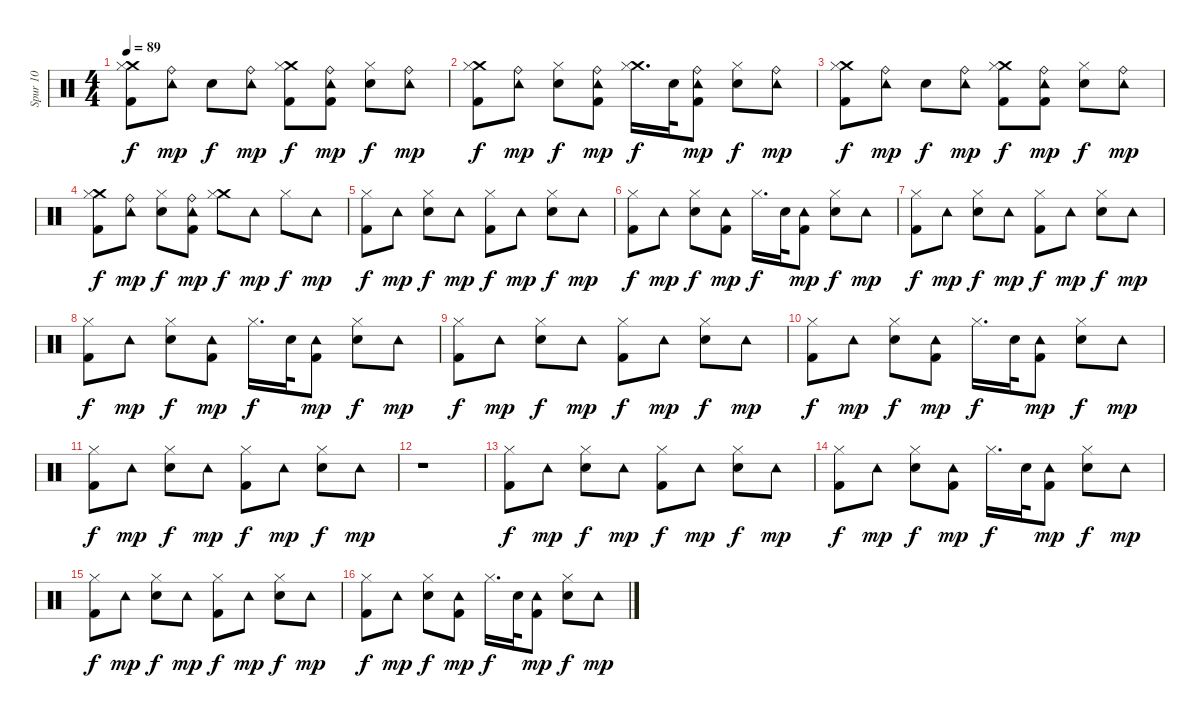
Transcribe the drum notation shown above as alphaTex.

\track ("Spur 10" "Spur 10") {instrument percussion}
\staff {score}
\articulation defaults
\ts (4 4)
\tempo 89
\clef neutral
\ks c
("Crash medium (hit)" "Kick (hit) 2" "Hi-Hat (closed)").8{dy f} ("Ride (bell)" "Tambourine (hit)").8{dy mp} "Electric Snare (hit)".8{dy f} ("Ride (bell)" "Tambourine (hit)").8{dy mp} ("Crash medium (hit)" "Kick (hit) 2" "Hi-Hat (closed)").8{dy f} ("Kick (hit) 2" "Ride (bell)" "Tambourine (hit)").8{dy mp} ("Electric Snare (hit)" "Hi-Hat (closed)").8{dy f} ("Ride (bell)" "Tambourine (hit)").8{dy mp} |
("Crash medium (hit)" "Kick (hit) 2" "Hi-Hat (closed)").8{dy f} ("Ride (bell)" "Tambourine (hit)").8{dy mp} ("Electric Snare (hit)" "Hi-Hat (closed)").8{dy f} ("Ride (bell)" "Kick (hit) 2" "Tambourine (hit)").8{dy mp} ("Crash medium (hit)" "Hi-Hat (closed)").16{d dy f} "Electric Snare (hit)".32 ("Ride (bell)" "Kick (hit) 2" "Tambourine (hit)").8{dy mp} ("Electric Snare (hit)" "Hi-Hat (closed)").8{dy f} ("Ride (bell)" "Tambourine (hit)").8{dy mp} |
("Crash medium (hit)" "Kick (hit) 2" "Hi-Hat (closed)").8{dy f} ("Ride (bell)" "Tambourine (hit)").8{dy mp} "Electric Snare (hit)".8{dy f} ("Ride (bell)" "Tambourine (hit)").8{dy mp} ("Crash medium (hit)" "Kick (hit) 2" "Hi-Hat (closed)").8{dy f} ("Kick (hit) 2" "Ride (bell)" "Tambourine (hit)").8{dy mp} ("Electric Snare (hit)" "Hi-Hat (closed)").8{dy f} ("Ride (bell)" "Tambourine (hit)").8{dy mp} |
("Crash medium (hit)" "Kick (hit) 2" "Hi-Hat (closed)").8{dy f} ("Ride (bell)" "Tambourine (hit)").8{dy mp} ("Electric Snare (hit)" "Hi-Hat (closed)").8{dy f} ("Ride (bell)" "Kick (hit) 2" "Tambourine (hit)").8{dy mp} ("Crash medium (hit)" "Hi-Hat (closed)").8{dy f} "Tambourine (hit)".8{dy mp} "Hi-Hat (closed)".8{dy f} "Tambourine (hit)".8{dy mp} |
("Kick (hit) 2" "Hi-Hat (closed)").8{dy f} "Tambourine (hit)".8{dy mp} ("Electric Snare (hit)" "Hi-Hat (closed)").8{dy f} "Tambourine (hit)".8{dy mp} ("Kick (hit) 2" "Hi-Hat (closed)").8{dy f} "Tambourine (hit)".8{dy mp} ("Electric Snare (hit)" "Hi-Hat (closed)").8{dy f} "Tambourine (hit)".8{dy mp} |
("Kick (hit) 2" "Hi-Hat (closed)").8{dy f} "Tambourine (hit)".8{dy mp} ("Electric Snare (hit)" "Hi-Hat (closed)").8{dy f} ("Kick (hit) 2" "Tambourine (hit)").8{dy mp} "Hi-Hat (closed)".16{d dy f} "Electric Snare (hit)".32 ("Kick (hit) 2" "Tambourine (hit)").8{dy mp} ("Electric Snare (hit)" "Hi-Hat (closed)").8{dy f} "Tambourine (hit)".8{dy mp} |
("Kick (hit) 2" "Hi-Hat (closed)").8{dy f} "Tambourine (hit)".8{dy mp} ("Electric Snare (hit)" "Hi-Hat (closed)").8{dy f} "Tambourine (hit)".8{dy mp} ("Kick (hit) 2" "Hi-Hat (closed)").8{dy f} "Tambourine (hit)".8{dy mp} ("Electric Snare (hit)" "Hi-Hat (closed)").8{dy f} "Tambourine (hit)".8{dy mp} |
("Kick (hit) 2" "Hi-Hat (closed)").8{dy f} "Tambourine (hit)".8{dy mp} ("Electric Snare (hit)" "Hi-Hat (closed)").8{dy f} ("Kick (hit) 2" "Tambourine (hit)").8{dy mp} "Hi-Hat (closed)".16{d dy f} "Electric Snare (hit)".32 ("Kick (hit) 2" "Tambourine (hit)").8{dy mp} ("Electric Snare (hit)" "Hi-Hat (closed)").8{dy f} "Tambourine (hit)".8{dy mp} |
("Kick (hit) 2" "Hi-Hat (closed)").8{dy f} "Tambourine (hit)".8{dy mp} ("Electric Snare (hit)" "Hi-Hat (closed)").8{dy f} "Tambourine (hit)".8{dy mp} ("Kick (hit) 2" "Hi-Hat (closed)").8{dy f} "Tambourine (hit)".8{dy mp} ("Electric Snare (hit)" "Hi-Hat (closed)").8{dy f} "Tambourine (hit)".8{dy mp} |
("Kick (hit) 2" "Hi-Hat (closed)").8{dy f} "Tambourine (hit)".8{dy mp} ("Electric Snare (hit)" "Hi-Hat (closed)").8{dy f} ("Kick (hit) 2" "Tambourine (hit)").8{dy mp} "Hi-Hat (closed)".16{d dy f} "Electric Snare (hit)".32 ("Kick (hit) 2" "Tambourine (hit)").8{dy mp} ("Electric Snare (hit)" "Hi-Hat (closed)").8{dy f} "Tambourine (hit)".8{dy mp} |
("Kick (hit) 2" "Hi-Hat (closed)").8{dy f} "Tambourine (hit)".8{dy mp} ("Electric Snare (hit)" "Hi-Hat (closed)").8{dy f} "Tambourine (hit)".8{dy mp} ("Kick (hit) 2" "Hi-Hat (closed)").8{dy f} "Tambourine (hit)".8{dy mp} ("Electric Snare (hit)" "Hi-Hat (closed)").8{dy f} "Tambourine (hit)".8{dy mp} |
r.1 |
("Kick (hit) 2" "Hi-Hat (closed)").8{dy f} "Tambourine (hit)".8{dy mp} ("Electric Snare (hit)" "Hi-Hat (closed)").8{dy f} "Tambourine (hit)".8{dy mp} ("Kick (hit) 2" "Hi-Hat (closed)").8{dy f} "Tambourine (hit)".8{dy mp} ("Electric Snare (hit)" "Hi-Hat (closed)").8{dy f} "Tambourine (hit)".8{dy mp} |
("Kick (hit) 2" "Hi-Hat (closed)").8{dy f} "Tambourine (hit)".8{dy mp} ("Electric Snare (hit)" "Hi-Hat (closed)").8{dy f} ("Kick (hit) 2" "Tambourine (hit)").8{dy mp} "Hi-Hat (closed)".16{d dy f} "Electric Snare (hit)".32 ("Kick (hit) 2" "Tambourine (hit)").8{dy mp} ("Electric Snare (hit)" "Hi-Hat (closed)").8{dy f} "Tambourine (hit)".8{dy mp} |
("Kick (hit) 2" "Hi-Hat (closed)").8{dy f} "Tambourine (hit)".8{dy mp} ("Electric Snare (hit)" "Hi-Hat (closed)").8{dy f} "Tambourine (hit)".8{dy mp} ("Kick (hit) 2" "Hi-Hat (closed)").8{dy f} "Tambourine (hit)".8{dy mp} ("Electric Snare (hit)" "Hi-Hat (closed)").8{dy f} "Tambourine (hit)".8{dy mp} |
("Kick (hit) 2" "Hi-Hat (closed)").8{dy f} "Tambourine (hit)".8{dy mp} ("Electric Snare (hit)" "Hi-Hat (closed)").8{dy f} ("Kick (hit) 2" "Tambourine (hit)").8{dy mp} "Hi-Hat (closed)".16{d dy f} "Electric Snare (hit)".32 ("Kick (hit) 2" "Tambourine (hit)").8{dy mp} ("Electric Snare (hit)" "Hi-Hat (closed)").8{dy f} "Tambourine (hit)".8{dy mp}
